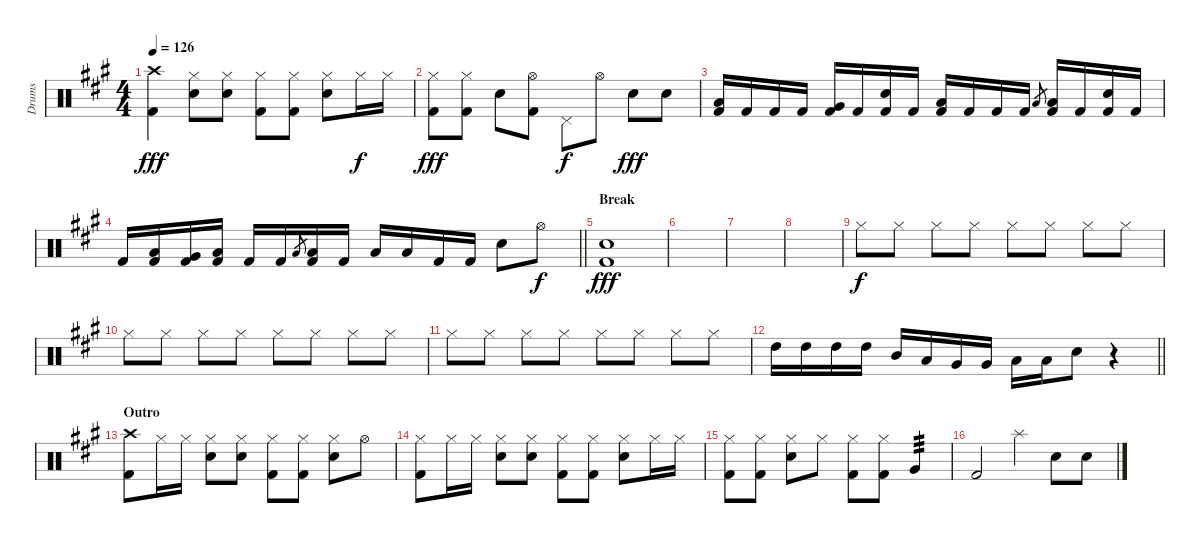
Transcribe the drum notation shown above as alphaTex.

\track ("Drums" "Drums") {instrument percussion}
\staff {score}
\articulation defaults
\ts (4 4)
\tempo 126
\clef neutral
\ks a
("Crash high (hit)" "Kick (hit) 2").4{dy fff} ("Hi-Hat (closed)" "Snare (hit) 2").8 ("Hi-Hat (closed)" "Snare (hit) 2").8 ("Hi-Hat (closed)" "Kick (hit) 2").8 ("Hi-Hat (closed)" "Kick (hit) 2").8 ("Hi-Hat (closed)" "Snare (hit) 2").8 "Hi-Hat (closed)".16{dy f} "Hi-Hat (closed)".16 |
("Hi-Hat (closed)" "Kick (hit) 2").8{dy fff} ("Hi-Hat (closed)" "Kick (hit) 2").8 "Snare (hit) 2".8 ("Hi-Hat (open)" "Kick (hit) 2").8 "Pedal Hi-Hat (hit)".8{dy f} "Hi-Hat (open)".8 "Snare (hit) 2".8{dy fff} "Snare (hit) 2".8 |
("Low Tom (hit)" "Kick (hit) 2").16 "Kick (hit) 2".16 "Kick (hit) 2".16 "Kick (hit) 2".16 ("Very Low Tom (hit)" "Kick (hit) 2").16 "Kick (hit) 2".16 ("Snare (hit) 2" "Kick (hit) 2").16 "Kick (hit) 2".16 ("Low Tom (hit)" "Kick (hit) 2").16 "Kick (hit) 2".16 "Kick (hit) 2".16 "Kick (hit) 2".16 "Low Tom (hit)".8{gr} ("Low Tom (hit)" "Kick (hit) 2").16 "Kick (hit) 2".16 ("Snare (hit) 2" "Kick (hit) 2").16 "Kick (hit) 2".16 |
\barLineRight lightlight "Kick (hit) 2".16
("Low Tom (hit)" "Kick (hit) 2").16 ("Very Low Tom (hit)" "Kick (hit) 2").16 ("Low Tom (hit)" "Kick (hit) 2").16 "Kick (hit) 2".16 "Kick (hit) 2".16 "Low Tom (hit)".8{gr} ("Low Tom (hit)" "Kick (hit) 2").16 "Kick (hit) 2".16 "Low Tom (hit)".16 "Low Tom (hit)".16 "Kick (hit) 2".16 "Kick (hit) 2".16 "Snare (hit) 2".8 "Hi-Hat (open)".8{dy f} |
\section ("" "Break")
("Snare (hit) 2" "Kick (hit) 2").1{dy fff} |
|
|
|
"Hi-Hat (closed)".8{dy f} "Hi-Hat (closed)".8 "Hi-Hat (closed)".8 "Hi-Hat (closed)".8 "Hi-Hat (closed)".8 "Hi-Hat (closed)".8 "Hi-Hat (closed)".8 "Hi-Hat (closed)".8 |
"Hi-Hat (closed)".8 "Hi-Hat (closed)".8 "Hi-Hat (closed)".8 "Hi-Hat (closed)".8 "Hi-Hat (closed)".8 "Hi-Hat (closed)".8 "Hi-Hat (closed)".8 "Hi-Hat (closed)".8 |
"Hi-Hat (closed)".8 "Hi-Hat (closed)".8 "Hi-Hat (closed)".8 "Hi-Hat (closed)".8 "Hi-Hat (closed)".8 "Hi-Hat (closed)".8 "Hi-Hat (closed)".8 "Hi-Hat (closed)".8 |
\barLineRight lightlight "High Tom (hit)".16 "High Tom (hit)".16 "High Tom (hit)".16 "High Tom (hit)".16 "Mid Tom (hit)".16 "Low Tom (hit)".16 "Very Low Tom (hit)".16 "Very Low Tom (hit)".16 "Low Floor Tom (hit)".16 "Low Floor Tom (hit)".16 "Snare (hit) 2".8
r.4 |
\section ("" "Outro")
("Crash high (hit)" "Kick (hit) 2").8 "Hi-Hat (closed)".16 "Hi-Hat (closed)".16 ("Hi-Hat (closed)" "Snare (hit) 2").8 ("Hi-Hat (closed)" "Snare (hit) 2").8 ("Hi-Hat (closed)" "Kick (hit) 2").8 ("Hi-Hat (closed)" "Kick (hit) 2").8 ("Hi-Hat (closed)" "Snare (hit) 2").8 "Hi-Hat (open)".8 |
("Hi-Hat (closed)" "Kick (hit) 2").8 "Hi-Hat (closed)".16 "Hi-Hat (closed)".16 ("Hi-Hat (closed)" "Snare (hit) 2").8 ("Hi-Hat (closed)" "Snare (hit) 2").8 ("Hi-Hat (closed)" "Kick (hit) 2").8 ("Hi-Hat (closed)" "Kick (hit) 2").8 ("Hi-Hat (closed)" "Snare (hit) 2").8 "Hi-Hat (closed)".16 "Hi-Hat (closed)".16 |
("Hi-Hat (closed)" "Kick (hit) 2").8 ("Hi-Hat (closed)" "Kick (hit) 2").8 ("Hi-Hat (closed)" "Snare (hit) 2").8 "Hi-Hat (closed)".8 ("Hi-Hat (closed)" "Kick (hit) 2").8 ("Hi-Hat (closed)" "Kick (hit) 2").8 "Very Low Tom (hit)".4{tp 3} |
"Kick (hit) 2".2 "Splash (hit)".4 "Snare (hit) 2".8 "Snare (hit) 2".8
